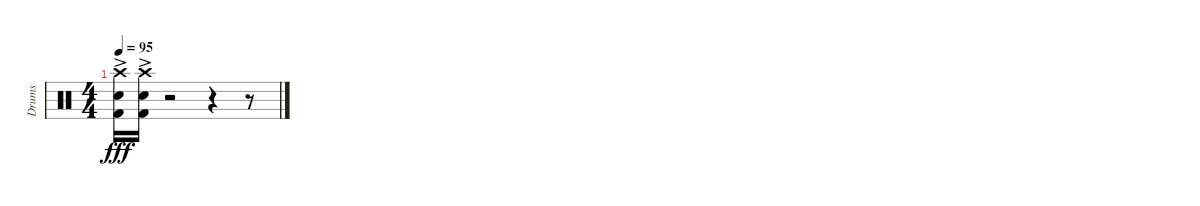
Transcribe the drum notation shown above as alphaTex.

\track ("Drums" "Drums") {instrument percussion}
\staff {score}
\articulation defaults
\ts (4 4)
\tempo 95
\clef neutral
\ks c
("Crash high (hit)"{ac} "Electric Snare (hit)"{ac} "Kick (hit) 2"{ac}).16{dy fff} ("Crash high (hit)"{ac} "Electric Snare (hit)"{ac} "Kick (hit) 2"{ac}).16 r.2 r.4 r.8
